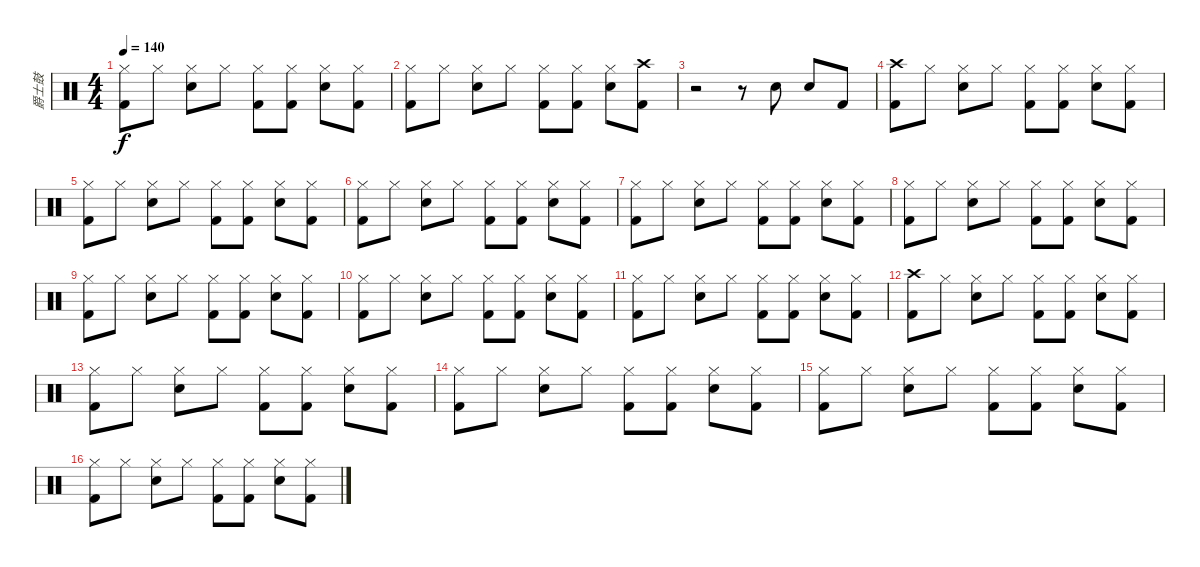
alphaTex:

\track ("爵士鼓" "爵士鼓") {instrument percussion}
\staff {score}
\articulation defaults
\ts (4 4)
\tempo 140
\clef neutral
\ks c
("Hi-Hat (closed)" "Kick (hit) 2").8{dy f} "Hi-Hat (closed)".8 ("Hi-Hat (closed)" "Electric Snare (hit)").8 "Hi-Hat (closed)".8 ("Hi-Hat (closed)" "Kick (hit) 2").8 ("Hi-Hat (closed)" "Kick (hit) 2").8 ("Hi-Hat (closed)" "Electric Snare (hit)").8 ("Hi-Hat (closed)" "Kick (hit) 2").8 |
("Hi-Hat (closed)" "Kick (hit) 2").8 "Hi-Hat (closed)".8 ("Hi-Hat (closed)" "Electric Snare (hit)").8 "Hi-Hat (closed)".8 ("Hi-Hat (closed)" "Kick (hit) 2").8 ("Hi-Hat (closed)" "Kick (hit) 2").8 ("Hi-Hat (closed)" "Electric Snare (hit)").8 ("Crash high (hit)" "Kick (hit) 2").8 |
r.2 r.8 "Electric Snare (hit)".8 "Electric Snare (hit)".8 "Kick (hit) 2".8 |
("Crash high (hit)" "Kick (hit) 2").8 "Hi-Hat (closed)".8 ("Hi-Hat (closed)" "Electric Snare (hit)").8 "Hi-Hat (closed)".8 ("Hi-Hat (closed)" "Kick (hit) 2").8 ("Hi-Hat (closed)" "Kick (hit) 2").8 ("Hi-Hat (closed)" "Electric Snare (hit)").8 ("Hi-Hat (closed)" "Kick (hit) 2").8 |
("Hi-Hat (closed)" "Kick (hit) 2").8 "Hi-Hat (closed)".8 ("Hi-Hat (closed)" "Electric Snare (hit)").8 "Hi-Hat (closed)".8 ("Hi-Hat (closed)" "Kick (hit) 2").8 ("Hi-Hat (closed)" "Kick (hit) 2").8 ("Hi-Hat (closed)" "Electric Snare (hit)").8 ("Hi-Hat (closed)" "Kick (hit) 2").8 |
("Hi-Hat (closed)" "Kick (hit) 2").8 "Hi-Hat (closed)".8 ("Hi-Hat (closed)" "Electric Snare (hit)").8 "Hi-Hat (closed)".8 ("Hi-Hat (closed)" "Kick (hit) 2").8 ("Hi-Hat (closed)" "Kick (hit) 2").8 ("Hi-Hat (closed)" "Electric Snare (hit)").8 ("Hi-Hat (closed)" "Kick (hit) 2").8 |
("Hi-Hat (closed)" "Kick (hit) 2").8 "Hi-Hat (closed)".8 ("Hi-Hat (closed)" "Electric Snare (hit)").8 "Hi-Hat (closed)".8 ("Hi-Hat (closed)" "Kick (hit) 2").8 ("Hi-Hat (closed)" "Kick (hit) 2").8 ("Hi-Hat (closed)" "Electric Snare (hit)").8 ("Hi-Hat (closed)" "Kick (hit) 2").8 |
("Hi-Hat (closed)" "Kick (hit) 2").8 "Hi-Hat (closed)".8 ("Hi-Hat (closed)" "Electric Snare (hit)").8 "Hi-Hat (closed)".8 ("Hi-Hat (closed)" "Kick (hit) 2").8 ("Hi-Hat (closed)" "Kick (hit) 2").8 ("Hi-Hat (closed)" "Electric Snare (hit)").8 ("Hi-Hat (closed)" "Kick (hit) 2").8 |
("Hi-Hat (closed)" "Kick (hit) 2").8 "Hi-Hat (closed)".8 ("Hi-Hat (closed)" "Electric Snare (hit)").8 "Hi-Hat (closed)".8 ("Hi-Hat (closed)" "Kick (hit) 2").8 ("Hi-Hat (closed)" "Kick (hit) 2").8 ("Hi-Hat (closed)" "Electric Snare (hit)").8 ("Hi-Hat (closed)" "Kick (hit) 2").8 |
("Hi-Hat (closed)" "Kick (hit) 2").8 "Hi-Hat (closed)".8 ("Hi-Hat (closed)" "Electric Snare (hit)").8 "Hi-Hat (closed)".8 ("Hi-Hat (closed)" "Kick (hit) 2").8 ("Hi-Hat (closed)" "Kick (hit) 2").8 ("Hi-Hat (closed)" "Electric Snare (hit)").8 ("Hi-Hat (closed)" "Kick (hit) 2").8 |
("Hi-Hat (closed)" "Kick (hit) 2").8 "Hi-Hat (closed)".8 ("Hi-Hat (closed)" "Electric Snare (hit)").8 "Hi-Hat (closed)".8 ("Hi-Hat (closed)" "Kick (hit) 2").8 ("Hi-Hat (closed)" "Kick (hit) 2").8 ("Hi-Hat (closed)" "Electric Snare (hit)").8 ("Hi-Hat (closed)" "Kick (hit) 2").8 |
("Crash high (hit)" "Kick (hit) 2").8 "Hi-Hat (closed)".8 ("Hi-Hat (closed)" "Electric Snare (hit)").8 "Hi-Hat (closed)".8 ("Hi-Hat (closed)" "Kick (hit) 2").8 ("Hi-Hat (closed)" "Kick (hit) 2").8 ("Hi-Hat (closed)" "Electric Snare (hit)").8 ("Hi-Hat (closed)" "Kick (hit) 2").8 |
("Hi-Hat (closed)" "Kick (hit) 2").8 "Hi-Hat (closed)".8 ("Hi-Hat (closed)" "Electric Snare (hit)").8 "Hi-Hat (closed)".8 ("Hi-Hat (closed)" "Kick (hit) 2").8 ("Hi-Hat (closed)" "Kick (hit) 2").8 ("Hi-Hat (closed)" "Electric Snare (hit)").8 ("Hi-Hat (closed)" "Kick (hit) 2").8 |
("Hi-Hat (closed)" "Kick (hit) 2").8 "Hi-Hat (closed)".8 ("Hi-Hat (closed)" "Electric Snare (hit)").8 "Hi-Hat (closed)".8 ("Hi-Hat (closed)" "Kick (hit) 2").8 ("Hi-Hat (closed)" "Kick (hit) 2").8 ("Hi-Hat (closed)" "Electric Snare (hit)").8 ("Hi-Hat (closed)" "Kick (hit) 2").8 |
("Hi-Hat (closed)" "Kick (hit) 2").8 "Hi-Hat (closed)".8 ("Hi-Hat (closed)" "Electric Snare (hit)").8 "Hi-Hat (closed)".8 ("Hi-Hat (closed)" "Kick (hit) 2").8 ("Hi-Hat (closed)" "Kick (hit) 2").8 ("Hi-Hat (closed)" "Electric Snare (hit)").8 ("Hi-Hat (closed)" "Kick (hit) 2").8 |
("Hi-Hat (closed)" "Kick (hit) 2").8 "Hi-Hat (closed)".8 ("Hi-Hat (closed)" "Electric Snare (hit)").8 "Hi-Hat (closed)".8 ("Hi-Hat (closed)" "Kick (hit) 2").8 ("Hi-Hat (closed)" "Kick (hit) 2").8 ("Hi-Hat (closed)" "Electric Snare (hit)").8 ("Hi-Hat (closed)" "Kick (hit) 2").8
